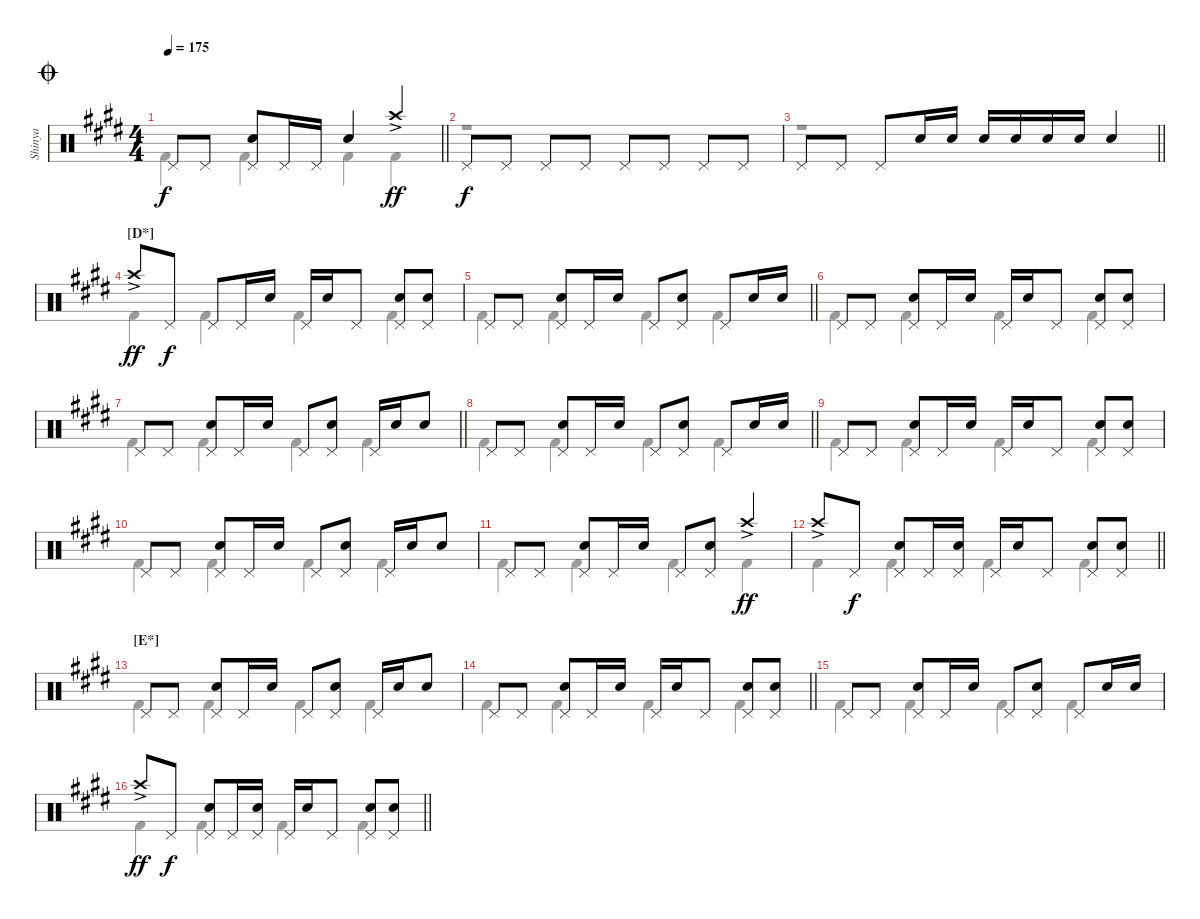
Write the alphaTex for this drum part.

\track ("Shinya" "Shinya") {instrument percussion}
\staff {score}
\articulation defaults
\voice
\ts (4 4)
\jump coda
\tempo 175
\clef neutral
\barLineRight lightlight
\ks c#minor "Pedal Hi-Hat (hit)".8{dy f} "Pedal Hi-Hat (hit)".8
("Pedal Hi-Hat (hit)" "Snare (hit) 2").8 "Pedal Hi-Hat (hit)".16 "Pedal Hi-Hat (hit)".16 "Snare (hit) 2".4 "Crash high (hit)"{ac}.4{dy ff} |
"Pedal Hi-Hat (hit)".8{dy f} "Pedal Hi-Hat (hit)".8 "Pedal Hi-Hat (hit)".8 "Pedal Hi-Hat (hit)".8 "Pedal Hi-Hat (hit)".8 "Pedal Hi-Hat (hit)".8 "Pedal Hi-Hat (hit)".8 "Pedal Hi-Hat (hit)".8 |
\barLineRight lightlight "Pedal Hi-Hat (hit)".8 "Pedal Hi-Hat (hit)".8 "Pedal Hi-Hat (hit)".8 "Snare (hit) 2".16 "Snare (hit) 2".16 "Snare (hit) 2".16 "Snare (hit) 2".16 "Snare (hit) 2".16 "Snare (hit) 2".16 "Snare (hit) 2".4
|
\section ("" "[D*]")
"Crash high (hit)"{ac}.8{dy ff} "Pedal Hi-Hat (hit)".8{dy f} "Pedal Hi-Hat (hit)".8 "Pedal Hi-Hat (hit)".16 "Snare (hit) 2".16 "Pedal Hi-Hat (hit)".16 "Snare (hit) 2".16 "Pedal Hi-Hat (hit)".8 ("Pedal Hi-Hat (hit)" "Snare (hit) 2").8 ("Pedal Hi-Hat (hit)" "Snare (hit) 2").8 |
\barLineRight lightlight "Pedal Hi-Hat (hit)".8 "Pedal Hi-Hat (hit)".8
("Pedal Hi-Hat (hit)" "Snare (hit) 2").8 "Pedal Hi-Hat (hit)".16 "Snare (hit) 2".16 "Pedal Hi-Hat (hit)".8 ("Pedal Hi-Hat (hit)" "Snare (hit) 2").8 "Pedal Hi-Hat (hit)".8 "Snare (hit) 2".16 "Snare (hit) 2".16 |
"Pedal Hi-Hat (hit)".8 "Pedal Hi-Hat (hit)".8 ("Pedal Hi-Hat (hit)" "Snare (hit) 2").8 "Pedal Hi-Hat (hit)".16 "Snare (hit) 2".16 "Pedal Hi-Hat (hit)".16 "Snare (hit) 2".16 "Pedal Hi-Hat (hit)".8 ("Pedal Hi-Hat (hit)" "Snare (hit) 2").8 ("Pedal Hi-Hat (hit)" "Snare (hit) 2").8 |
\barLineRight lightlight "Pedal Hi-Hat (hit)".8 "Pedal Hi-Hat (hit)".8
("Pedal Hi-Hat (hit)" "Snare (hit) 2").8 "Pedal Hi-Hat (hit)".16 "Snare (hit) 2".16 "Pedal Hi-Hat (hit)".8 ("Pedal Hi-Hat (hit)" "Snare (hit) 2").8 "Pedal Hi-Hat (hit)".16 "Snare (hit) 2".16 "Snare (hit) 2".8 |
\barLineRight lightlight "Pedal Hi-Hat (hit)".8 "Pedal Hi-Hat (hit)".8
("Pedal Hi-Hat (hit)" "Snare (hit) 2").8 "Pedal Hi-Hat (hit)".16 "Snare (hit) 2".16 "Pedal Hi-Hat (hit)".8 ("Pedal Hi-Hat (hit)" "Snare (hit) 2").8 "Pedal Hi-Hat (hit)".8 "Snare (hit) 2".16 "Snare (hit) 2".16 |
"Pedal Hi-Hat (hit)".8 "Pedal Hi-Hat (hit)".8 ("Pedal Hi-Hat (hit)" "Snare (hit) 2").8 "Pedal Hi-Hat (hit)".16 "Snare (hit) 2".16 "Pedal Hi-Hat (hit)".16 "Snare (hit) 2".16 "Pedal Hi-Hat (hit)".8 ("Pedal Hi-Hat (hit)" "Snare (hit) 2").8 ("Pedal Hi-Hat (hit)" "Snare (hit) 2").8 |
"Pedal Hi-Hat (hit)".8 "Pedal Hi-Hat (hit)".8 ("Pedal Hi-Hat (hit)" "Snare (hit) 2").8 "Pedal Hi-Hat (hit)".16 "Snare (hit) 2".16 "Pedal Hi-Hat (hit)".8 ("Pedal Hi-Hat (hit)" "Snare (hit) 2").8 "Pedal Hi-Hat (hit)".16 "Snare (hit) 2".16 "Snare (hit) 2".8 |
"Pedal Hi-Hat (hit)".8 "Pedal Hi-Hat (hit)".8 ("Pedal Hi-Hat (hit)" "Snare (hit) 2").8 "Pedal Hi-Hat (hit)".16 "Snare (hit) 2".16 "Pedal Hi-Hat (hit)".8 ("Pedal Hi-Hat (hit)" "Snare (hit) 2").8 "Crash high (hit)"{ac}.4{dy ff} |
\barLineRight lightlight "Crash high (hit)"{ac}.8 "Pedal Hi-Hat (hit)".8{dy f}
("Pedal Hi-Hat (hit)" "Snare (hit) 2").8 "Pedal Hi-Hat (hit)".16 ("Pedal Hi-Hat (hit)" "Snare (hit) 2").16 "Pedal Hi-Hat (hit)".16 "Snare (hit) 2".16 "Pedal Hi-Hat (hit)".8 ("Pedal Hi-Hat (hit)" "Snare (hit) 2").8 ("Pedal Hi-Hat (hit)" "Snare (hit) 2").8 |
\section ("" "[E*]")
"Pedal Hi-Hat (hit)".8 "Pedal Hi-Hat (hit)".8 ("Pedal Hi-Hat (hit)" "Snare (hit) 2").8 "Pedal Hi-Hat (hit)".16 "Snare (hit) 2".16 "Pedal Hi-Hat (hit)".8 ("Pedal Hi-Hat (hit)" "Snare (hit) 2").8 "Pedal Hi-Hat (hit)".16 "Snare (hit) 2".16 "Snare (hit) 2".8 |
\barLineRight lightlight "Pedal Hi-Hat (hit)".8 "Pedal Hi-Hat (hit)".8
("Pedal Hi-Hat (hit)" "Snare (hit) 2").8 "Pedal Hi-Hat (hit)".16 "Snare (hit) 2".16 "Pedal Hi-Hat (hit)".16 "Snare (hit) 2".16 "Pedal Hi-Hat (hit)".8 ("Pedal Hi-Hat (hit)" "Snare (hit) 2").8 ("Pedal Hi-Hat (hit)" "Snare (hit) 2").8 |
"Pedal Hi-Hat (hit)".8 "Pedal Hi-Hat (hit)".8 ("Pedal Hi-Hat (hit)" "Snare (hit) 2").8 "Pedal Hi-Hat (hit)".16 "Snare (hit) 2".16 "Pedal Hi-Hat (hit)".8 ("Pedal Hi-Hat (hit)" "Snare (hit) 2").8 "Pedal Hi-Hat (hit)".8 "Snare (hit) 2".16 "Snare (hit) 2".16 |
\barLineRight lightlight "Crash high (hit)"{ac}.8{dy ff} "Pedal Hi-Hat (hit)".8{dy f}
("Pedal Hi-Hat (hit)" "Snare (hit) 2").8 "Pedal Hi-Hat (hit)".16 ("Pedal Hi-Hat (hit)" "Snare (hit) 2").16 "Pedal Hi-Hat (hit)".16 "Snare (hit) 2".16 "Pedal Hi-Hat (hit)".8 ("Pedal Hi-Hat (hit)" "Snare (hit) 2").8 ("Pedal Hi-Hat (hit)" "Snare (hit) 2").8
\voice
\clef neutral
\ottava regular
\simile none
\barLineRight lightlight
\ks c#minor "Kick (hit) 2".4{dy f} "Kick (hit) 2".4 "Kick (hit) 2".4 "Kick (hit) 2".4
|
r.1 |
\barLineRight lightlight
r.1 |
"Kick (hit) 2".4 "Kick (hit) 2".4 "Kick (hit) 2".4 "Kick (hit) 2".4 |
\barLineRight lightlight "Kick (hit) 2".4 "Kick (hit) 2".4 "Kick (hit) 2".4 "Kick (hit) 2".4
|
"Kick (hit) 2".4 "Kick (hit) 2".4 "Kick (hit) 2".4 "Kick (hit) 2".4 |
\barLineRight lightlight "Kick (hit) 2".4 "Kick (hit) 2".4 "Kick (hit) 2".4 "Kick (hit) 2".4
|
\barLineRight lightlight "Kick (hit) 2".4 "Kick (hit) 2".4 "Kick (hit) 2".4 "Kick (hit) 2".4
|
"Kick (hit) 2".4 "Kick (hit) 2".4 "Kick (hit) 2".4 "Kick (hit) 2".4 |
"Kick (hit) 2".4 "Kick (hit) 2".4 "Kick (hit) 2".4 "Kick (hit) 2".4 |
"Kick (hit) 2".4 "Kick (hit) 2".4 "Kick (hit) 2".4 "Kick (hit) 2".4 |
\barLineRight lightlight "Kick (hit) 2".4 "Kick (hit) 2".4 "Kick (hit) 2".4 "Kick (hit) 2".4
|
"Kick (hit) 2".4 "Kick (hit) 2".4 "Kick (hit) 2".4 "Kick (hit) 2".4 |
\barLineRight lightlight "Kick (hit) 2".4 "Kick (hit) 2".4 "Kick (hit) 2".4 "Kick (hit) 2".4
|
"Kick (hit) 2".4 "Kick (hit) 2".4 "Kick (hit) 2".4 "Kick (hit) 2".4 |
\barLineRight lightlight "Kick (hit) 2".4 "Kick (hit) 2".4 "Kick (hit) 2".4 "Kick (hit) 2".4
